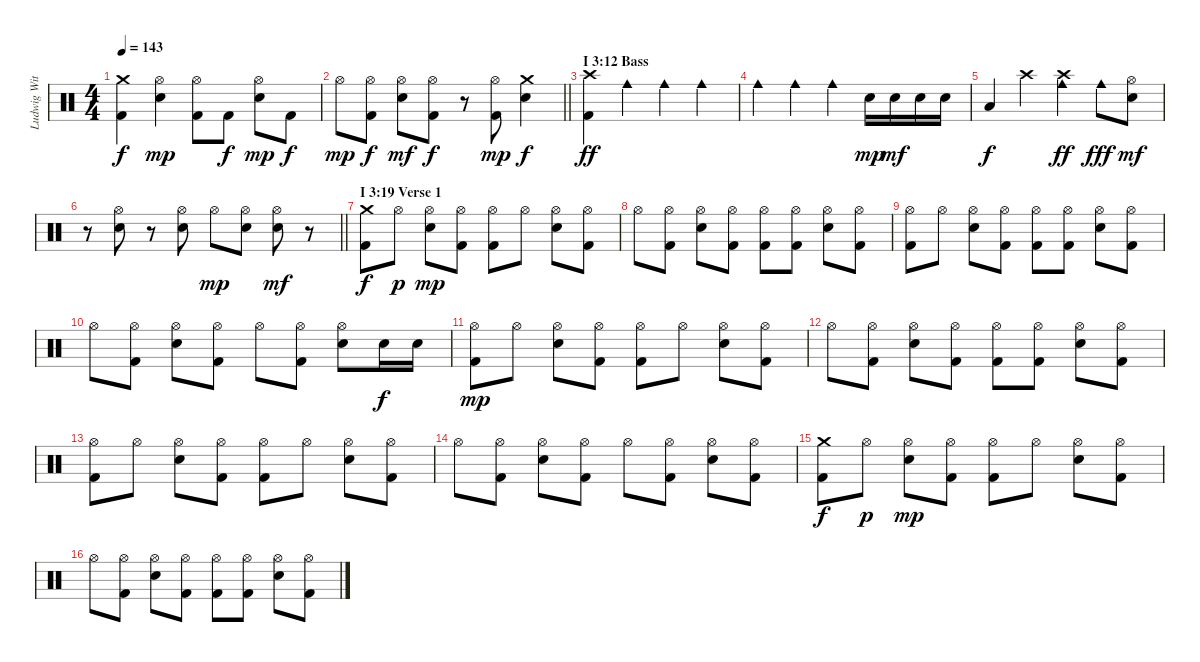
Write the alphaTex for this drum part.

\track ("Ludwig Witt (Drums)" "Ludwig Wit") {instrument percussion}
\staff {score}
\articulation defaults
\ts (4 4)
\tempo 143
\clef neutral
\ks c
("Crash medium (hit)" "Kick (hit) 2").4{dy f} ("Hi-Hat (open)" "Electric Snare (hit)").4{dy mp} ("Hi-Hat (open)" "Kick (hit) 2").8 "Kick (hit) 2".8{dy f} ("Hi-Hat (open)" "Electric Snare (hit)").8{dy mp} "Kick (hit) 2".8{dy f} |
\barLineRight lightlight "Hi-Hat (open)".8{dy mp}
("Hi-Hat (open)" "Kick (hit) 2").8{dy f} ("Hi-Hat (open)" "Electric Snare (hit)").8{dy mf} ("Hi-Hat (open)" "Kick (hit) 2").8{dy f} r.8 ("Hi-Hat (open)" "Kick (hit) 2").8{dy mp} ("Crash medium (hit)" "Electric Snare (hit)").4{dy f} |
\section ("" "I 3:12 Bass")
("Crash high (hit)" "Kick (hit) 2").4{dy ff} "Cowbell medium (hit)".4 "Cowbell medium (hit)".4 "Cowbell medium (hit)".4 |
"Cowbell medium (hit)".4 "Cowbell medium (hit)".4 "Cowbell medium (hit)".4 "Electric Snare (hit)".16{dy mp} "Electric Snare (hit)".16{dy mf} "Electric Snare (hit)".16 "Electric Snare (hit)".16 |
"Low Tom (hit)".4{dy f} "Crash high (hit)".4 ("Crash high (hit)" "Cowbell medium (hit)").4{dy ff} "Cowbell medium (hit)".8{dy fff} ("Hi-Hat (open)" "Electric Snare (hit)").8{dy mf} |
\barLineRight lightlight
r.8 ("Hi-Hat (open)" "Electric Snare (hit)").8 r.8 ("Hi-Hat (open)" "Electric Snare (hit)").8 "Hi-Hat (open)".8{dy mp} ("Hi-Hat (open)" "Electric Snare (hit)").8 ("Hi-Hat (open)" "Electric Snare (hit)").8{dy mf} r.8 |
\section ("" "I 3:19 Verse 1")
("Crash medium (hit)" "Kick (hit) 2").8{dy f} "Hi-Hat (open)".8{dy p} ("Hi-Hat (open)" "Electric Snare (hit)").8{dy mp} ("Hi-Hat (open)" "Kick (hit) 2").8 ("Hi-Hat (open)" "Kick (hit) 2").8 "Hi-Hat (open)".8 ("Hi-Hat (open)" "Electric Snare (hit)").8 ("Hi-Hat (open)" "Kick (hit) 2").8 |
"Hi-Hat (open)".8 ("Hi-Hat (open)" "Kick (hit) 2").8 ("Hi-Hat (open)" "Electric Snare (hit)").8 ("Hi-Hat (open)" "Kick (hit) 2").8 ("Hi-Hat (open)" "Kick (hit) 2").8 ("Hi-Hat (open)" "Kick (hit) 2").8 ("Hi-Hat (open)" "Electric Snare (hit)").8 ("Hi-Hat (open)" "Kick (hit) 2").8 |
("Hi-Hat (open)" "Kick (hit) 2").8 "Hi-Hat (open)".8 ("Hi-Hat (open)" "Electric Snare (hit)").8 ("Hi-Hat (open)" "Kick (hit) 2").8 ("Hi-Hat (open)" "Kick (hit) 2").8 ("Hi-Hat (open)" "Kick (hit) 2").8 ("Hi-Hat (open)" "Electric Snare (hit)").8 ("Hi-Hat (open)" "Kick (hit) 2").8 |
"Hi-Hat (open)".8 ("Hi-Hat (open)" "Kick (hit) 2").8 ("Hi-Hat (open)" "Electric Snare (hit)").8 ("Hi-Hat (open)" "Kick (hit) 2").8 "Hi-Hat (open)".8 ("Hi-Hat (open)" "Kick (hit) 2").8 ("Hi-Hat (open)" "Electric Snare (hit)").8 "Electric Snare (hit)".16{dy f} "Electric Snare (hit)".16 |
("Hi-Hat (open)" "Kick (hit) 2").8{dy mp} "Hi-Hat (open)".8 ("Hi-Hat (open)" "Electric Snare (hit)").8 ("Hi-Hat (open)" "Kick (hit) 2").8 ("Hi-Hat (open)" "Kick (hit) 2").8 "Hi-Hat (open)".8 ("Hi-Hat (open)" "Electric Snare (hit)").8 ("Hi-Hat (open)" "Kick (hit) 2").8 |
"Hi-Hat (open)".8 ("Hi-Hat (open)" "Kick (hit) 2").8 ("Hi-Hat (open)" "Electric Snare (hit)").8 ("Hi-Hat (open)" "Kick (hit) 2").8 ("Hi-Hat (open)" "Kick (hit) 2").8 ("Hi-Hat (open)" "Kick (hit) 2").8 ("Hi-Hat (open)" "Electric Snare (hit)").8 ("Hi-Hat (open)" "Kick (hit) 2").8 |
("Hi-Hat (open)" "Kick (hit) 2").8 "Hi-Hat (open)".8 ("Hi-Hat (open)" "Electric Snare (hit)").8 ("Hi-Hat (open)" "Kick (hit) 2").8 ("Hi-Hat (open)" "Kick (hit) 2").8 "Hi-Hat (open)".8 ("Hi-Hat (open)" "Electric Snare (hit)").8 ("Hi-Hat (open)" "Kick (hit) 2").8 |
"Hi-Hat (open)".8 ("Hi-Hat (open)" "Kick (hit) 2").8 ("Hi-Hat (open)" "Electric Snare (hit)").8 ("Hi-Hat (open)" "Kick (hit) 2").8 "Hi-Hat (open)".8 ("Hi-Hat (open)" "Kick (hit) 2").8 ("Hi-Hat (open)" "Electric Snare (hit)").8 ("Hi-Hat (open)" "Kick (hit) 2").8 |
("Crash medium (hit)" "Kick (hit) 2").8{dy f} "Hi-Hat (open)".8{dy p} ("Hi-Hat (open)" "Electric Snare (hit)").8{dy mp} ("Hi-Hat (open)" "Kick (hit) 2").8 ("Hi-Hat (open)" "Kick (hit) 2").8 "Hi-Hat (open)".8 ("Hi-Hat (open)" "Electric Snare (hit)").8 ("Hi-Hat (open)" "Kick (hit) 2").8 |
"Hi-Hat (open)".8 ("Hi-Hat (open)" "Kick (hit) 2").8 ("Hi-Hat (open)" "Electric Snare (hit)").8 ("Hi-Hat (open)" "Kick (hit) 2").8 ("Hi-Hat (open)" "Kick (hit) 2").8 ("Hi-Hat (open)" "Kick (hit) 2").8 ("Hi-Hat (open)" "Electric Snare (hit)").8 ("Hi-Hat (open)" "Kick (hit) 2").8
